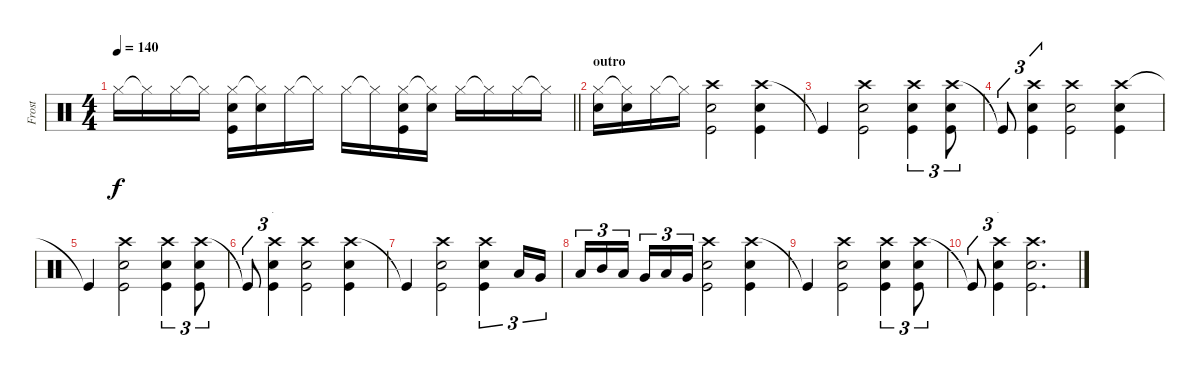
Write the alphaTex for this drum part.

\track ("Frost" "Frost") {instrument percussion}
\staff {score}
\articulation defaults
\ts (4 4)
\tempo 140
\clef neutral
\barLineRight lightlight
\ks c "Hi-Hat (closed)".16{dy f} "Hi-Hat (closed)"{t}.16 "Hi-Hat (closed)".16 "Hi-Hat (closed)"{t}.16
("Hi-Hat (closed)" "Electric Snare (hit)" "Kick (hit)").16 ("Hi-Hat (closed)"{t} "Electric Snare (hit)").16 "Hi-Hat (closed)".16 "Hi-Hat (closed)"{t}.16 "Hi-Hat (closed)".16 "Hi-Hat (closed)"{t}.16 ("Hi-Hat (closed)" "Electric Snare (hit)" "Kick (hit)").16 ("Hi-Hat (closed)"{t} "Electric Snare (hit)").16 "Hi-Hat (closed)".16 "Hi-Hat (closed)"{t}.16 "Hi-Hat (closed)".16 "Hi-Hat (closed)"{t}.16 |
\section ("" "outro")
("Hi-Hat (closed)" "Electric Snare (hit)").16 ("Hi-Hat (closed)"{t} "Electric Snare (hit)").16 "Hi-Hat (closed)".16 "Hi-Hat (closed)"{t}.16 ("Crash high (hit)" "Electric Snare (hit)" "Kick (hit)").2 ("Crash high (hit)" "Electric Snare (hit)" "Kick (hit)").4 |
"Kick (hit)"{t}.4 ("Crash high (hit)" "Electric Snare (hit)" "Kick (hit)").2 ("Crash high (hit)" "Electric Snare (hit)" "Kick (hit)").4{tu (3 2)} ("Crash high (hit)" "Electric Snare (hit)" "Kick (hit)").8{tu (3 2)} |
"Kick (hit)"{t}.8{tu (3 2)} ("Crash high (hit)" "Electric Snare (hit)" "Kick (hit)").4{tu (3 2)} ("Crash high (hit)" "Electric Snare (hit)" "Kick (hit)").2 ("Crash high (hit)" "Electric Snare (hit)" "Kick (hit)").4 |
"Kick (hit)"{t}.4 ("Crash high (hit)" "Electric Snare (hit)" "Kick (hit)").2 ("Crash high (hit)" "Electric Snare (hit)" "Kick (hit)").4{tu (3 2)} ("Crash high (hit)" "Electric Snare (hit)" "Kick (hit)").8{tu (3 2)} |
"Kick (hit)"{t}.8{tu (3 2)} ("Crash high (hit)" "Electric Snare (hit)" "Kick (hit)").4{tu (3 2)} ("Crash high (hit)" "Electric Snare (hit)" "Kick (hit)").2 ("Crash high (hit)" "Electric Snare (hit)" "Kick (hit)").4 |
"Kick (hit)"{t}.4 ("Crash high (hit)" "Electric Snare (hit)" "Kick (hit)").2 ("Crash high (hit)" "Electric Snare (hit)" "Kick (hit)").4{tu (3 2)} "Low Floor Tom (hit)".16{tu (3 2)} "Very Low Tom (hit)".16{tu (3 2)} |
"Low Tom (hit)".16{tu (3 2)} "Mid Tom (hit)".16{tu (3 2)} "Low Tom (hit)".16{tu (3 2) beam splitsecondary} "Very Low Tom (hit)".16{tu (3 2)} "Low Floor Tom (hit)".16{tu (3 2)} "Very Low Tom (hit)".16{tu (3 2)} ("Crash high (hit)" "Electric Snare (hit)" "Kick (hit)").2 ("Crash high (hit)" "Electric Snare (hit)" "Kick (hit)").4 |
"Kick (hit)"{t}.4 ("Crash high (hit)" "Electric Snare (hit)" "Kick (hit)").2 ("Crash high (hit)" "Electric Snare (hit)" "Kick (hit)").4{tu (3 2)} ("Crash high (hit)" "Electric Snare (hit)" "Kick (hit)").8{tu (3 2)} |
"Kick (hit)"{t}.8{tu (3 2)} ("Crash high (hit)" "Electric Snare (hit)" "Kick (hit)").4{tu (3 2)} ("Crash high (hit)" "Electric Snare (hit)" "Kick (hit)").2{d}
